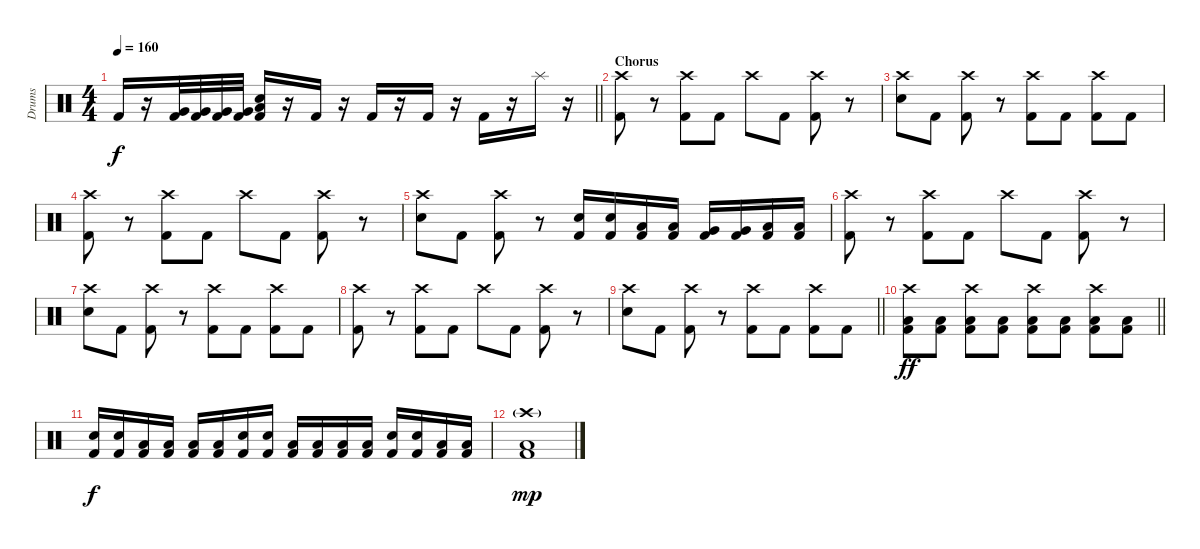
\track ("Drums" "Drums") {instrument percussion}
\staff {score}
\articulation defaults
\ts (4 4)
\tempo 160
\clef neutral
\barLineRight lightlight
\ks c "Kick (hit) 2".16{dy f}
r.16 ("Very Low Tom (hit)" "Kick (hit) 2").32 ("Very Low Tom (hit)" "Kick (hit) 2").32 ("Very Low Tom (hit)" "Kick (hit) 2").32 ("Very Low Tom (hit)" "Kick (hit) 2").32 ("Electric Snare (hit)" "Low Floor Tom (hit)" "Kick (hit) 2").16 r.16 "Kick (hit) 2".16 r.16 "Kick (hit) 2".16 r.16 "Kick (hit) 2".16 r.16 "Kick (hit) 2".16 r.16 "Splash (hit)".16 r.16 |
\section ("" "Chorus")
("Crash high (hit)" "Kick (hit) 2").8 r.8 ("Crash high (hit)" "Kick (hit) 2").8 "Kick (hit) 2".8 "Crash high (hit)".8 "Kick (hit) 2".8 ("Crash high (hit)" "Kick (hit) 2").8 r.8 |
("Crash high (hit)" "Electric Snare (hit)").8 "Kick (hit) 2".8 ("Crash high (hit)" "Kick (hit) 2").8 r.8 ("Crash high (hit)" "Kick (hit) 2").8 "Kick (hit) 2".8 ("Crash high (hit)" "Kick (hit) 2").8 "Kick (hit) 2".8 |
("Crash high (hit)" "Kick (hit) 2").8 r.8 ("Crash high (hit)" "Kick (hit) 2").8 "Kick (hit) 2".8 "Crash high (hit)".8 "Kick (hit) 2".8 ("Crash high (hit)" "Kick (hit) 2").8 r.8 |
("Crash high (hit)" "Electric Snare (hit)").8 "Kick (hit) 2".8 ("Crash high (hit)" "Kick (hit) 2").8 r.8 ("Electric Snare (hit)" "Kick (hit) 2").16 ("Electric Snare (hit)" "Kick (hit) 2").16 ("Low Tom (hit)" "Kick (hit) 2").16 ("Low Tom (hit)" "Kick (hit) 2").16 ("Very Low Tom (hit)" "Kick (hit) 2").16 ("Very Low Tom (hit)" "Kick (hit) 2").16 ("Low Floor Tom (hit)" "Kick (hit) 2").16 ("Low Floor Tom (hit)" "Kick (hit) 2").16 |
("Crash high (hit)" "Kick (hit) 2").8 r.8 ("Crash high (hit)" "Kick (hit) 2").8 "Kick (hit) 2".8 "Crash high (hit)".8 "Kick (hit) 2".8 ("Crash high (hit)" "Kick (hit) 2").8 r.8 |
("Crash high (hit)" "Electric Snare (hit)").8 "Kick (hit) 2".8 ("Crash high (hit)" "Kick (hit) 2").8 r.8 ("Crash high (hit)" "Kick (hit) 2").8 "Kick (hit) 2".8 ("Crash high (hit)" "Kick (hit) 2").8 "Kick (hit) 2".8 |
("Crash high (hit)" "Kick (hit) 2").8 r.8 ("Crash high (hit)" "Kick (hit) 2").8 "Kick (hit) 2".8 "Crash high (hit)".8 "Kick (hit) 2".8 ("Crash high (hit)" "Kick (hit) 2").8 r.8 |
\barLineRight lightlight
("Crash high (hit)" "Electric Snare (hit)").8 "Kick (hit) 2".8 ("Crash high (hit)" "Kick (hit) 2").8 r.8 ("Crash high (hit)" "Kick (hit) 2").8 "Kick (hit) 2".8 ("Crash high (hit)" "Kick (hit) 2").8 "Kick (hit) 2".8 |
\barLineRight lightlight
("Crash high (hit)" "Low Floor Tom (hit)" "Kick (hit) 2").8{dy ff} ("Low Floor Tom (hit)" "Kick (hit) 2").8 ("Crash high (hit)" "Low Floor Tom (hit)" "Kick (hit) 2").8 ("Low Floor Tom (hit)" "Kick (hit) 2").8 ("Crash high (hit)" "Low Floor Tom (hit)" "Kick (hit) 2").8 ("Low Floor Tom (hit)" "Kick (hit) 2").8 ("Crash high (hit)" "Low Floor Tom (hit)" "Kick (hit) 2").8 ("Low Floor Tom (hit)" "Kick (hit) 2").8 |
\section ("" "")
("Electric Snare (hit)" "Kick (hit) 2").16{dy f} ("Electric Snare (hit)" "Kick (hit) 2").16 ("Low Floor Tom (hit)" "Kick (hit) 2").16 ("Low Floor Tom (hit)" "Kick (hit) 2").16 ("Low Floor Tom (hit)" "Kick (hit) 2").16 ("Low Floor Tom (hit)" "Kick (hit) 2").16 ("Electric Snare (hit)" "Kick (hit) 2").16 ("Electric Snare (hit)" "Kick (hit) 2").16 ("Low Floor Tom (hit)" "Kick (hit) 2").16 ("Low Floor Tom (hit)" "Kick (hit) 2").16 ("Low Floor Tom (hit)" "Kick (hit) 2").16 ("Low Floor Tom (hit)" "Kick (hit) 2").16 ("Electric Snare (hit)" "Kick (hit) 2").16 ("Electric Snare (hit)" "Kick (hit) 2").16 ("Low Floor Tom (hit)" "Kick (hit) 2").16 ("Low Floor Tom (hit)" "Kick (hit) 2").16 |
("Crash high (hit)"{g} "Low Floor Tom (hit)" "Kick (hit) 2").1{dy mp}
